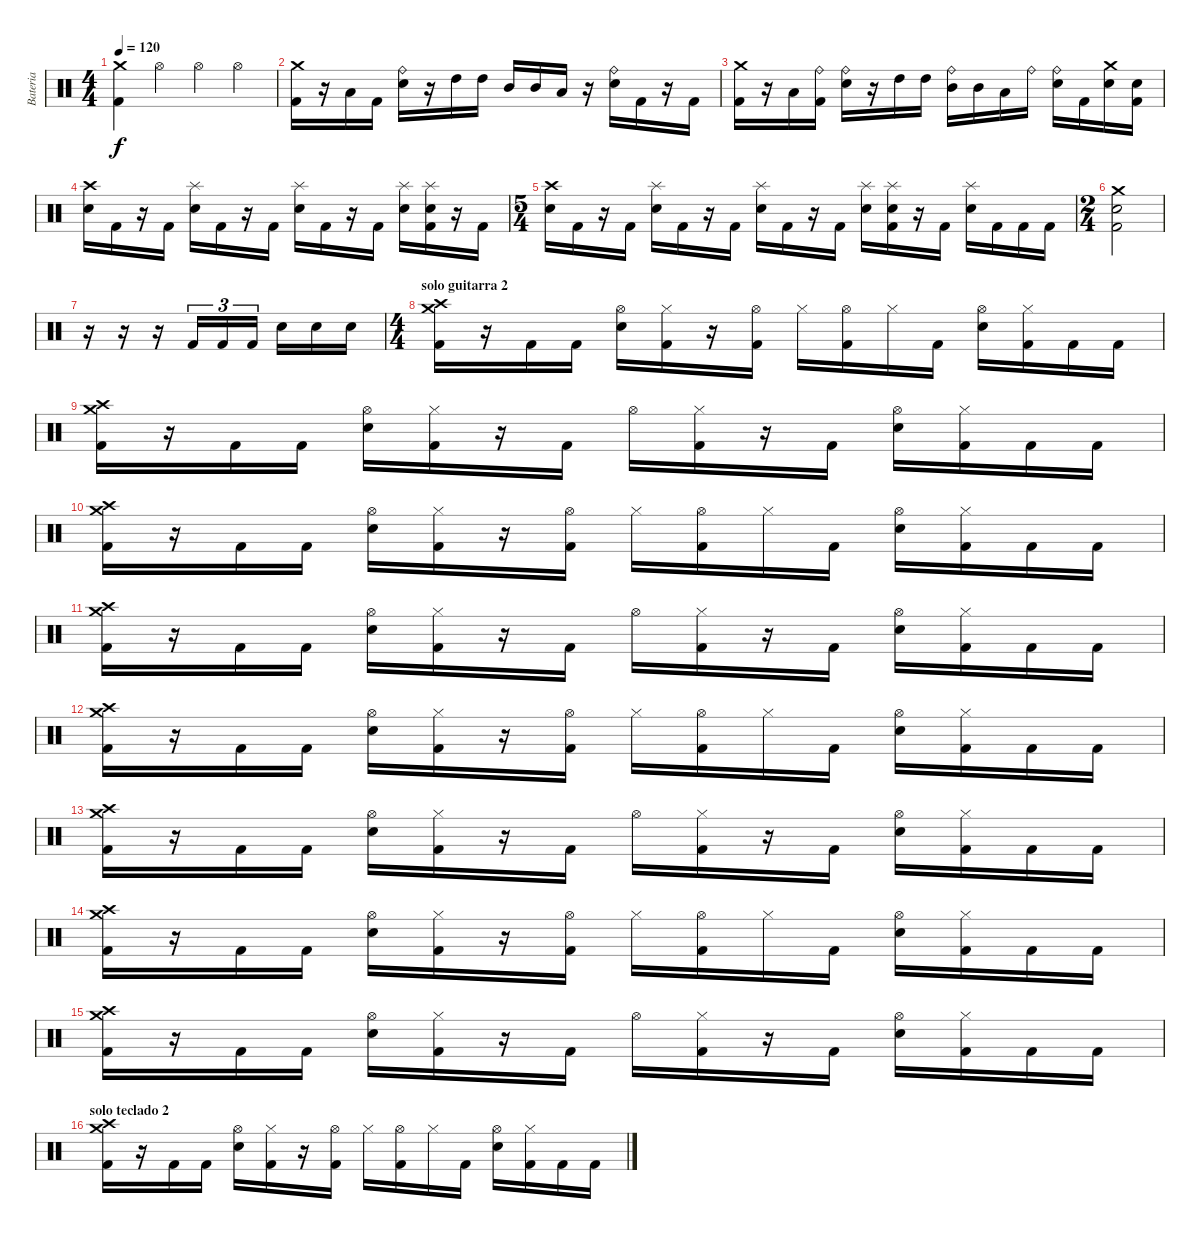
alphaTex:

\track ("Bateria" "Bateria") {instrument percussion}
\staff {score}
\articulation defaults
\ts (4 4)
\tempo 120
\clef neutral
\ks c
("Crash medium (hit)" "Kick (hit) 2").4{dy f} "Hi-Hat (open)".4 "Hi-Hat (open)".4 "Hi-Hat (open)".4 |
("Crash medium (hit)" "Kick (hit) 2").16 r.16 "Low Tom (hit)".16 "Kick (hit) 2".16 ("Ride (bell)" "Electric Snare (hit)").16 r.16 "High Tom (hit)".16 "High Tom (hit)".16 "Mid Tom (hit)".16 "Mid Tom (hit)".16 "Low Tom (hit)".16 r.16 ("Ride (bell)" "Electric Snare (hit)").16 "Kick (hit) 2".16 r.16 "Kick (hit) 2".16 |
("Crash medium (hit)" "Kick (hit) 2").16 r.16 "Low Tom (hit)".16 ("Ride (bell)" "Kick (hit) 2").16 ("Ride (bell)" "Electric Snare (hit)").16 r.16 "High Tom (hit)".16 "High Tom (hit)".16 ("Ride (bell)" "Mid Tom (hit)").16 "Mid Tom (hit)".16 "Low Tom (hit)".16 "Ride (bell)".16 ("Ride (bell)" "Electric Snare (hit)").16 "Kick (hit) 2".16 ("Crash medium (hit)" "Electric Snare (hit)").16 ("Electric Snare (hit)" "Kick (hit) 2").16 |
("Crash high (hit)" "Electric Snare (hit)").16 "Kick (hit) 2".16 r.16 "Kick (hit) 2".16 ("Splash (hit)" "Electric Snare (hit)").16 "Kick (hit) 2".16 r.16 "Kick (hit) 2".16 ("Splash (hit)" "Electric Snare (hit)").16 "Kick (hit) 2".16 r.16 "Kick (hit) 2".16 ("Splash (hit)" "Electric Snare (hit)").16 ("Splash (hit)" "Electric Snare (hit)" "Kick (hit) 2").16 r.16 "Kick (hit) 2".16 |
\ts (5 4)
("Crash high (hit)" "Electric Snare (hit)").16 "Kick (hit) 2".16 r.16 "Kick (hit) 2".16 ("Splash (hit)" "Electric Snare (hit)").16 "Kick (hit) 2".16 r.16 "Kick (hit) 2".16 ("Splash (hit)" "Electric Snare (hit)").16 "Kick (hit) 2".16 r.16 "Kick (hit) 2".16 ("Splash (hit)" "Electric Snare (hit)").16 ("Splash (hit)" "Electric Snare (hit)" "Kick (hit) 2").16 r.16 "Kick (hit) 2".16 ("Splash (hit)" "Electric Snare (hit)").16 "Kick (hit) 2".16 "Kick (hit) 2".16 "Kick (hit) 2".16 |
\ts (2 4)
("Crash medium (hit)" "Electric Snare (hit)" "Kick (hit) 2").2 |
r.16 r.16 r.16 "Kick (hit) 2".16{tu (3 2)} "Kick (hit) 2".16{tu (3 2)} "Kick (hit) 2".16{tu (3 2)} "Electric Snare (hit)".16 "Electric Snare (hit)".16 "Electric Snare (hit)".16 |
\ts (4 4)
\section ("" "solo guitarra 2")
("Crash medium (hit)" "Crash high (hit)" "Kick (hit) 2").16 r.16 "Kick (hit) 2".16 "Kick (hit) 2".16 ("Hi-Hat (open)" "Electric Snare (hit)").16 ("Hi-Hat (closed)" "Kick (hit) 2").16 r.16 ("Hi-Hat (open)" "Kick (hit) 2").16 "Hi-Hat (closed)".16 ("Hi-Hat (open)" "Kick (hit) 2").16 "Hi-Hat (closed)".16 "Kick (hit) 2".16 ("Hi-Hat (open)" "Electric Snare (hit)").16 ("Hi-Hat (closed)" "Kick (hit) 2").16 "Kick (hit) 2".16 "Kick (hit) 2".16 |
("Crash medium (hit)" "Crash high (hit)" "Kick (hit) 2").16 r.16 "Kick (hit) 2".16 "Kick (hit) 2".16 ("Hi-Hat (open)" "Electric Snare (hit)").16 ("Hi-Hat (closed)" "Kick (hit) 2").16 r.16 "Kick (hit) 2".16 "Hi-Hat (open)".16 ("Hi-Hat (closed)" "Kick (hit) 2").16 r.16 "Kick (hit) 2".16 ("Hi-Hat (open)" "Electric Snare (hit)").16 ("Hi-Hat (closed)" "Kick (hit) 2").16 "Kick (hit) 2".16 "Kick (hit) 2".16 |
("Crash medium (hit)" "Crash high (hit)" "Kick (hit) 2").16 r.16 "Kick (hit) 2".16 "Kick (hit) 2".16 ("Hi-Hat (open)" "Electric Snare (hit)").16 ("Hi-Hat (closed)" "Kick (hit) 2").16 r.16 ("Hi-Hat (open)" "Kick (hit) 2").16 "Hi-Hat (closed)".16 ("Hi-Hat (open)" "Kick (hit) 2").16 "Hi-Hat (closed)".16 "Kick (hit) 2".16 ("Hi-Hat (open)" "Electric Snare (hit)").16 ("Hi-Hat (closed)" "Kick (hit) 2").16 "Kick (hit) 2".16 "Kick (hit) 2".16 |
("Crash medium (hit)" "Crash high (hit)" "Kick (hit) 2").16 r.16 "Kick (hit) 2".16 "Kick (hit) 2".16 ("Hi-Hat (open)" "Electric Snare (hit)").16 ("Hi-Hat (closed)" "Kick (hit) 2").16 r.16 "Kick (hit) 2".16 "Hi-Hat (open)".16 ("Hi-Hat (closed)" "Kick (hit) 2").16 r.16 "Kick (hit) 2".16 ("Hi-Hat (open)" "Electric Snare (hit)").16 ("Hi-Hat (closed)" "Kick (hit) 2").16 "Kick (hit) 2".16 "Kick (hit) 2".16 |
("Crash medium (hit)" "Crash high (hit)" "Kick (hit) 2").16 r.16 "Kick (hit) 2".16 "Kick (hit) 2".16 ("Hi-Hat (open)" "Electric Snare (hit)").16 ("Hi-Hat (closed)" "Kick (hit) 2").16 r.16 ("Hi-Hat (open)" "Kick (hit) 2").16 "Hi-Hat (closed)".16 ("Hi-Hat (open)" "Kick (hit) 2").16 "Hi-Hat (closed)".16 "Kick (hit) 2".16 ("Hi-Hat (open)" "Electric Snare (hit)").16 ("Hi-Hat (closed)" "Kick (hit) 2").16 "Kick (hit) 2".16 "Kick (hit) 2".16 |
("Crash medium (hit)" "Crash high (hit)" "Kick (hit) 2").16 r.16 "Kick (hit) 2".16 "Kick (hit) 2".16 ("Hi-Hat (open)" "Electric Snare (hit)").16 ("Hi-Hat (closed)" "Kick (hit) 2").16 r.16 "Kick (hit) 2".16 "Hi-Hat (open)".16 ("Hi-Hat (closed)" "Kick (hit) 2").16 r.16 "Kick (hit) 2".16 ("Hi-Hat (open)" "Electric Snare (hit)").16 ("Hi-Hat (closed)" "Kick (hit) 2").16 "Kick (hit) 2".16 "Kick (hit) 2".16 |
("Crash medium (hit)" "Crash high (hit)" "Kick (hit) 2").16 r.16 "Kick (hit) 2".16 "Kick (hit) 2".16 ("Hi-Hat (open)" "Electric Snare (hit)").16 ("Hi-Hat (closed)" "Kick (hit) 2").16 r.16 ("Hi-Hat (open)" "Kick (hit) 2").16 "Hi-Hat (closed)".16 ("Hi-Hat (open)" "Kick (hit) 2").16 "Hi-Hat (closed)".16 "Kick (hit) 2".16 ("Hi-Hat (open)" "Electric Snare (hit)").16 ("Hi-Hat (closed)" "Kick (hit) 2").16 "Kick (hit) 2".16 "Kick (hit) 2".16 |
("Crash medium (hit)" "Crash high (hit)" "Kick (hit) 2").16 r.16 "Kick (hit) 2".16 "Kick (hit) 2".16 ("Hi-Hat (open)" "Electric Snare (hit)").16 ("Hi-Hat (closed)" "Kick (hit) 2").16 r.16 "Kick (hit) 2".16 "Hi-Hat (open)".16 ("Hi-Hat (closed)" "Kick (hit) 2").16 r.16 "Kick (hit) 2".16 ("Hi-Hat (open)" "Electric Snare (hit)").16 ("Hi-Hat (closed)" "Kick (hit) 2").16 "Kick (hit) 2".16 "Kick (hit) 2".16 |
\section ("" "solo teclado 2")
("Crash medium (hit)" "Crash high (hit)" "Kick (hit) 2").16 r.16 "Kick (hit) 2".16 "Kick (hit) 2".16 ("Hi-Hat (open)" "Electric Snare (hit)").16 ("Hi-Hat (closed)" "Kick (hit) 2").16 r.16 ("Hi-Hat (open)" "Kick (hit) 2").16 "Hi-Hat (closed)".16 ("Hi-Hat (open)" "Kick (hit) 2").16 "Hi-Hat (closed)".16 "Kick (hit) 2".16 ("Hi-Hat (open)" "Electric Snare (hit)").16 ("Hi-Hat (closed)" "Kick (hit) 2").16 "Kick (hit) 2".16 "Kick (hit) 2".16
